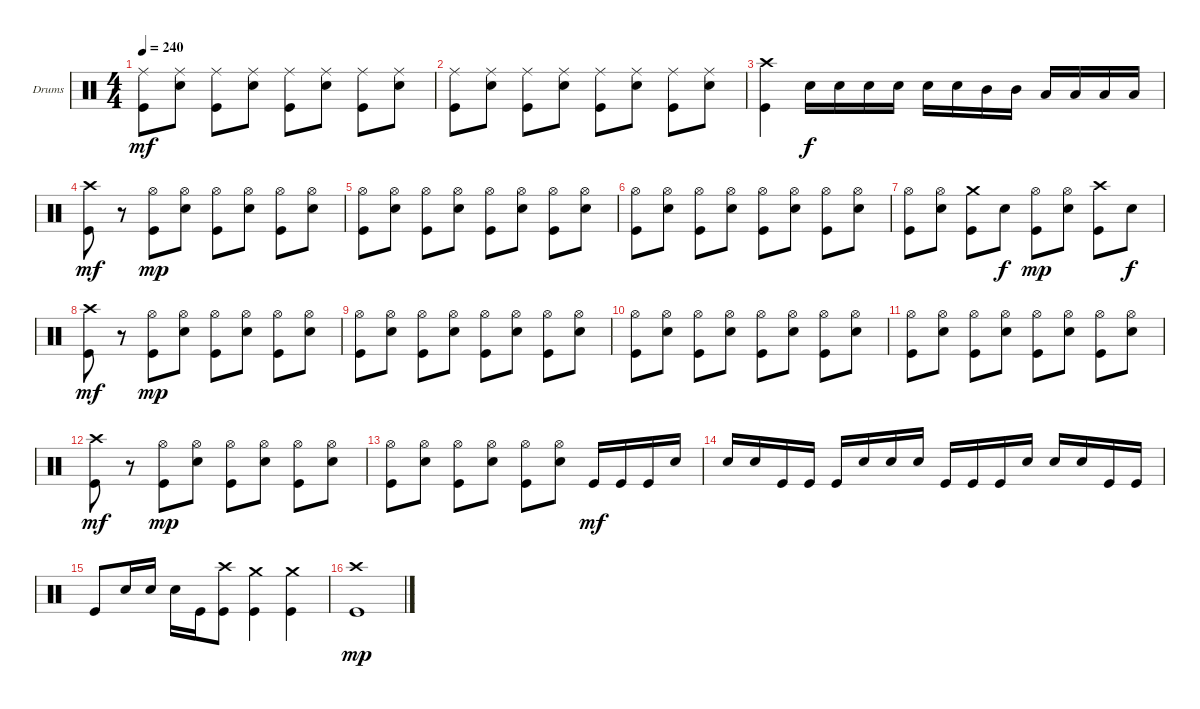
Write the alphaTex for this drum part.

\bracketExtendMode groupsimilarinstruments
\firstSystemTrackNameOrientation horizontal
\otherSystemsTrackNameOrientation horizontal
\track ("Drumkit" "Drums") {instrument percussion}
\staff {score}
\articulation defaults
\ts (4 4)
\tempo 240
\clef neutral
\ks c
("Ride (middle)" "Kick (hit)").8{dy mf} ("Ride (middle)" "Snare (hit) 2").8 ("Ride (middle)" "Kick (hit)").8 ("Ride (middle)" "Snare (hit) 2").8 ("Ride (middle)" "Kick (hit)").8 ("Ride (middle)" "Snare (hit) 2").8 ("Ride (middle)" "Kick (hit)").8 ("Ride (middle)" "Snare (hit) 2").8 |
("Ride (middle)" "Kick (hit)").8 ("Ride (middle)" "Snare (hit) 2").8 ("Ride (middle)" "Kick (hit)").8 ("Ride (middle)" "Snare (hit) 2").8 ("Ride (middle)" "Kick (hit)").8 ("Ride (middle)" "Snare (hit) 2").8 ("Ride (middle)" "Kick (hit)").8 ("Ride (middle)" "Snare (hit) 2").8 |
("Crash high (hit)" "Kick (hit)").4 "Snare (hit) 2".16{dy f} "Snare (hit) 2".16 "Snare (hit) 2".16 "Snare (hit) 2".16 "Snare (hit) 2".16 "Snare (hit) 2".16 "Mid Tom (hit)".16 "Mid Tom (hit)".16 "Low Tom (hit)".16 "Low Tom (hit)".16 "Low Tom (hit)".16 "Low Tom (hit)".16 |
("Crash high (hit)" "Kick (hit)").8{dy mf} r.8 ("Hi-Hat (open)" "Kick (hit)").8{dy mp} ("Hi-Hat (open)" "Snare (hit) 2").8 ("Hi-Hat (open)" "Kick (hit)").8 ("Hi-Hat (open)" "Snare (hit) 2").8 ("Hi-Hat (open)" "Kick (hit)").8 ("Hi-Hat (open)" "Snare (hit) 2").8 |
("Hi-Hat (open)" "Kick (hit)").8 ("Hi-Hat (open)" "Snare (hit) 2").8 ("Hi-Hat (open)" "Kick (hit)").8 ("Hi-Hat (open)" "Snare (hit) 2").8 ("Hi-Hat (open)" "Kick (hit)").8 ("Hi-Hat (open)" "Snare (hit) 2").8 ("Hi-Hat (open)" "Kick (hit)").8 ("Hi-Hat (open)" "Snare (hit) 2").8 |
("Hi-Hat (open)" "Kick (hit)").8 ("Hi-Hat (open)" "Snare (hit) 2").8 ("Hi-Hat (open)" "Kick (hit)").8 ("Hi-Hat (open)" "Snare (hit) 2").8 ("Hi-Hat (open)" "Kick (hit)").8 ("Hi-Hat (open)" "Snare (hit) 2").8 ("Hi-Hat (open)" "Kick (hit)").8 ("Hi-Hat (open)" "Snare (hit) 2").8 |
("Hi-Hat (open)" "Kick (hit)").8 ("Hi-Hat (open)" "Snare (hit) 2").8 ("Crash medium (hit)" "Kick (hit)").8 "Snare (hit) 2".8{dy f} ("Hi-Hat (open)" "Kick (hit)").8{dy mp} ("Hi-Hat (open)" "Snare (hit) 2").8 ("Crash high (hit)" "Kick (hit)").8 "Snare (hit) 2".8{dy f} |
("Crash high (hit)" "Kick (hit)").8{dy mf} r.8 ("Hi-Hat (open)" "Kick (hit)").8{dy mp} ("Hi-Hat (open)" "Snare (hit) 2").8 ("Hi-Hat (open)" "Kick (hit)").8 ("Hi-Hat (open)" "Snare (hit) 2").8 ("Hi-Hat (open)" "Kick (hit)").8 ("Hi-Hat (open)" "Snare (hit) 2").8 |
("Hi-Hat (open)" "Kick (hit)").8 ("Hi-Hat (open)" "Snare (hit) 2").8 ("Hi-Hat (open)" "Kick (hit)").8 ("Hi-Hat (open)" "Snare (hit) 2").8 ("Hi-Hat (open)" "Kick (hit)").8 ("Hi-Hat (open)" "Snare (hit) 2").8 ("Hi-Hat (open)" "Kick (hit)").8 ("Hi-Hat (open)" "Snare (hit) 2").8 |
("Hi-Hat (open)" "Kick (hit)").8 ("Hi-Hat (open)" "Snare (hit) 2").8 ("Hi-Hat (open)" "Kick (hit)").8 ("Hi-Hat (open)" "Snare (hit) 2").8 ("Hi-Hat (open)" "Kick (hit)").8 ("Hi-Hat (open)" "Snare (hit) 2").8 ("Hi-Hat (open)" "Kick (hit)").8 ("Hi-Hat (open)" "Snare (hit) 2").8 |
("Hi-Hat (open)" "Kick (hit)").8 ("Hi-Hat (open)" "Snare (hit) 2").8 ("Hi-Hat (open)" "Kick (hit)").8 ("Hi-Hat (open)" "Snare (hit) 2").8 ("Hi-Hat (open)" "Kick (hit)").8 ("Hi-Hat (open)" "Snare (hit) 2").8 ("Hi-Hat (open)" "Kick (hit)").8 ("Hi-Hat (open)" "Snare (hit) 2").8 |
("Crash high (hit)" "Kick (hit)").8{dy mf} r.8 ("Hi-Hat (open)" "Kick (hit)").8{dy mp} ("Hi-Hat (open)" "Snare (hit) 2").8 ("Hi-Hat (open)" "Kick (hit)").8 ("Hi-Hat (open)" "Snare (hit) 2").8 ("Hi-Hat (open)" "Kick (hit)").8 ("Hi-Hat (open)" "Snare (hit) 2").8 |
("Hi-Hat (open)" "Kick (hit)").8 ("Hi-Hat (open)" "Snare (hit) 2").8 ("Hi-Hat (open)" "Kick (hit)").8 ("Hi-Hat (open)" "Snare (hit) 2").8 ("Hi-Hat (open)" "Kick (hit)").8 ("Hi-Hat (open)" "Snare (hit) 2").8 "Kick (hit)".16{dy mf} "Kick (hit)".16 "Kick (hit)".16 "Snare (hit) 2".16 |
"Snare (hit) 2".16 "Snare (hit) 2".16 "Kick (hit)".16 "Kick (hit)".16 "Kick (hit)".16 "Snare (hit) 2".16 "Snare (hit) 2".16 "Snare (hit) 2".16 "Kick (hit)".16 "Kick (hit)".16 "Kick (hit)".16 "Snare (hit) 2".16 "Snare (hit) 2".16 "Snare (hit) 2".16 "Kick (hit)".16 "Kick (hit)".16 |
"Kick (hit)".8 "Snare (hit) 2".16 "Snare (hit) 2".16 "Snare (hit) 2".16 "Kick (hit)".16 ("Crash high (hit)" "Kick (hit)").8 ("Crash medium (hit)" "Kick (hit)").4 ("Crash medium (hit)" "Kick (hit)").4 |
("Crash high (hit)" "Kick (hit)").1{dy mp}
